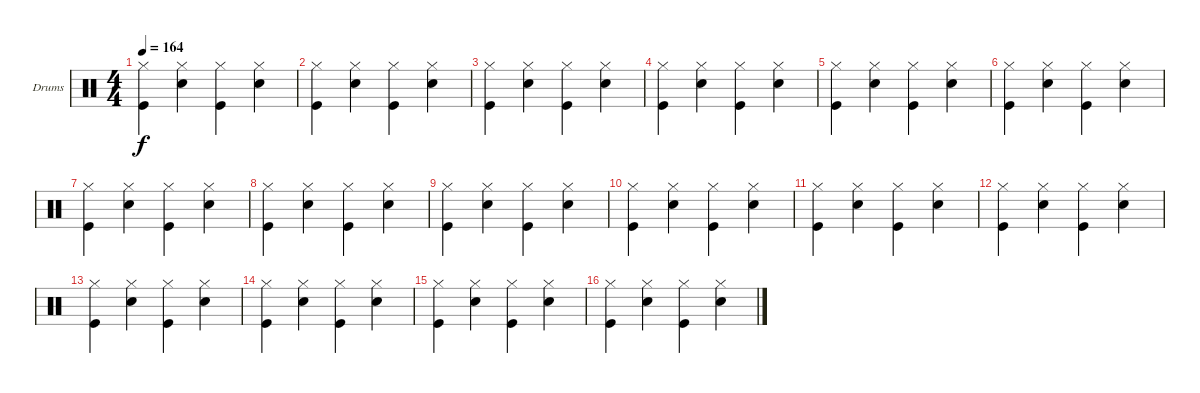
\bracketExtendMode groupsimilarinstruments
\firstSystemTrackNameOrientation horizontal
\otherSystemsTrackNameOrientation horizontal
\track ("Matt Sorum - Drums" "Drums") {instrument percussion}
\staff {score}
\articulation defaults
\ts (4 4)
\tempo 164
\clef neutral
\ks aminor
("Hi-Hat (closed)" "Kick (hit)").4{dy f} ("Hi-Hat (closed)" "Snare (hit) 2").4 ("Hi-Hat (closed)" "Kick (hit)").4 ("Hi-Hat (closed)" "Snare (hit) 2").4 |
("Hi-Hat (closed)" "Kick (hit)").4 ("Hi-Hat (closed)" "Snare (hit) 2").4 ("Hi-Hat (closed)" "Kick (hit)").4 ("Hi-Hat (closed)" "Snare (hit) 2").4 |
("Hi-Hat (closed)" "Kick (hit)").4 ("Hi-Hat (closed)" "Snare (hit) 2").4 ("Hi-Hat (closed)" "Kick (hit)").4 ("Hi-Hat (closed)" "Snare (hit) 2").4 |
("Hi-Hat (closed)" "Kick (hit)").4 ("Hi-Hat (closed)" "Snare (hit) 2").4 ("Hi-Hat (closed)" "Kick (hit)").4 ("Hi-Hat (closed)" "Snare (hit) 2").4 |
("Hi-Hat (closed)" "Kick (hit)").4 ("Hi-Hat (closed)" "Snare (hit) 2").4 ("Hi-Hat (closed)" "Kick (hit)").4 ("Hi-Hat (closed)" "Snare (hit) 2").4 |
("Hi-Hat (closed)" "Kick (hit)").4 ("Hi-Hat (closed)" "Snare (hit) 2").4 ("Hi-Hat (closed)" "Kick (hit)").4 ("Hi-Hat (closed)" "Snare (hit) 2").4 |
("Hi-Hat (closed)" "Kick (hit)").4 ("Hi-Hat (closed)" "Snare (hit) 2").4 ("Hi-Hat (closed)" "Kick (hit)").4 ("Hi-Hat (closed)" "Snare (hit) 2").4 |
("Hi-Hat (closed)" "Kick (hit)").4 ("Hi-Hat (closed)" "Snare (hit) 2").4 ("Hi-Hat (closed)" "Kick (hit)").4 ("Hi-Hat (closed)" "Snare (hit) 2").4 |
("Hi-Hat (closed)" "Kick (hit)").4 ("Hi-Hat (closed)" "Snare (hit) 2").4 ("Hi-Hat (closed)" "Kick (hit)").4 ("Hi-Hat (closed)" "Snare (hit) 2").4 |
("Hi-Hat (closed)" "Kick (hit)").4 ("Hi-Hat (closed)" "Snare (hit) 2").4 ("Hi-Hat (closed)" "Kick (hit)").4 ("Hi-Hat (closed)" "Snare (hit) 2").4 |
("Hi-Hat (closed)" "Kick (hit)").4 ("Hi-Hat (closed)" "Snare (hit) 2").4 ("Hi-Hat (closed)" "Kick (hit)").4 ("Hi-Hat (closed)" "Snare (hit) 2").4 |
("Hi-Hat (closed)" "Kick (hit)").4 ("Hi-Hat (closed)" "Snare (hit) 2").4 ("Hi-Hat (closed)" "Kick (hit)").4 ("Hi-Hat (closed)" "Snare (hit) 2").4 |
("Hi-Hat (closed)" "Kick (hit)").4 ("Hi-Hat (closed)" "Snare (hit) 2").4 ("Hi-Hat (closed)" "Kick (hit)").4 ("Hi-Hat (closed)" "Snare (hit) 2").4 |
("Hi-Hat (closed)" "Kick (hit)").4 ("Hi-Hat (closed)" "Snare (hit) 2").4 ("Hi-Hat (closed)" "Kick (hit)").4 ("Hi-Hat (closed)" "Snare (hit) 2").4 |
("Hi-Hat (closed)" "Kick (hit)").4 ("Hi-Hat (closed)" "Snare (hit) 2").4 ("Hi-Hat (closed)" "Kick (hit)").4 ("Hi-Hat (closed)" "Snare (hit) 2").4 |
("Hi-Hat (closed)" "Kick (hit)").4 ("Hi-Hat (closed)" "Snare (hit) 2").4 ("Hi-Hat (closed)" "Kick (hit)").4 ("Hi-Hat (closed)" "Snare (hit) 2").4
